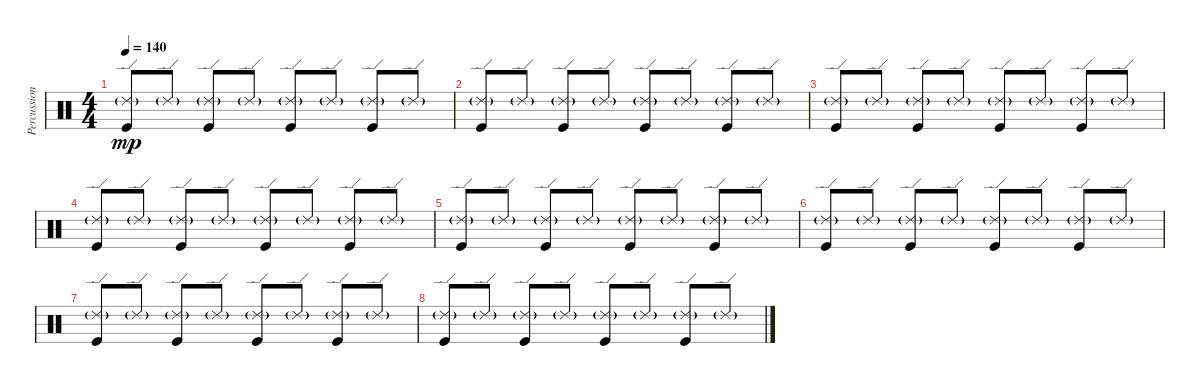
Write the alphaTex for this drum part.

\track ("Percussion" "Percussion") {instrument percussion}
\staff {score}
\articulation defaults
\ts (4 4)
\tempo 140
\clef neutral
\ks c
("Kick (hit)" "Ride (edge) 2"{g}).8{dy mp} "Ride (edge) 2"{g}.8 ("Kick (hit)" "Ride (edge) 2"{g}).8 "Ride (edge) 2"{g}.8 ("Kick (hit)" "Ride (edge) 2"{g}).8 "Ride (edge) 2"{g}.8 ("Kick (hit)" "Ride (edge) 2"{g}).8 "Ride (edge) 2"{g}.8 |
("Kick (hit)" "Ride (edge) 2"{g}).8 "Ride (edge) 2"{g}.8 ("Kick (hit)" "Ride (edge) 2"{g}).8 "Ride (edge) 2"{g}.8 ("Kick (hit)" "Ride (edge) 2"{g}).8 "Ride (edge) 2"{g}.8 ("Kick (hit)" "Ride (edge) 2"{g}).8 "Ride (edge) 2"{g}.8 |
("Kick (hit)" "Ride (edge) 2"{g}).8 "Ride (edge) 2"{g}.8 ("Kick (hit)" "Ride (edge) 2"{g}).8 "Ride (edge) 2"{g}.8 ("Kick (hit)" "Ride (edge) 2"{g}).8 "Ride (edge) 2"{g}.8 ("Kick (hit)" "Ride (edge) 2"{g}).8 "Ride (edge) 2"{g}.8 |
("Kick (hit)" "Ride (edge) 2"{g}).8 "Ride (edge) 2"{g}.8 ("Kick (hit)" "Ride (edge) 2"{g}).8 "Ride (edge) 2"{g}.8 ("Kick (hit)" "Ride (edge) 2"{g}).8 "Ride (edge) 2"{g}.8 ("Kick (hit)" "Ride (edge) 2"{g}).8 "Ride (edge) 2"{g}.8 |
("Kick (hit)" "Ride (edge) 2"{g}).8 "Ride (edge) 2"{g}.8 ("Kick (hit)" "Ride (edge) 2"{g}).8 "Ride (edge) 2"{g}.8 ("Kick (hit)" "Ride (edge) 2"{g}).8 "Ride (edge) 2"{g}.8 ("Kick (hit)" "Ride (edge) 2"{g}).8 "Ride (edge) 2"{g}.8 |
("Kick (hit)" "Ride (edge) 2"{g}).8 "Ride (edge) 2"{g}.8 ("Kick (hit)" "Ride (edge) 2"{g}).8 "Ride (edge) 2"{g}.8 ("Kick (hit)" "Ride (edge) 2"{g}).8 "Ride (edge) 2"{g}.8 ("Kick (hit)" "Ride (edge) 2"{g}).8 "Ride (edge) 2"{g}.8 |
("Kick (hit)" "Ride (edge) 2"{g}).8 "Ride (edge) 2"{g}.8 ("Kick (hit)" "Ride (edge) 2"{g}).8 "Ride (edge) 2"{g}.8 ("Kick (hit)" "Ride (edge) 2"{g}).8 "Ride (edge) 2"{g}.8 ("Kick (hit)" "Ride (edge) 2"{g}).8 "Ride (edge) 2"{g}.8 |
("Kick (hit)" "Ride (edge) 2"{g}).8 "Ride (edge) 2"{g}.8 ("Kick (hit)" "Ride (edge) 2"{g}).8 "Ride (edge) 2"{g}.8 ("Kick (hit)" "Ride (edge) 2"{g}).8 "Ride (edge) 2"{g}.8 ("Kick (hit)" "Ride (edge) 2"{g}).8 "Ride (edge) 2"{g}.8
